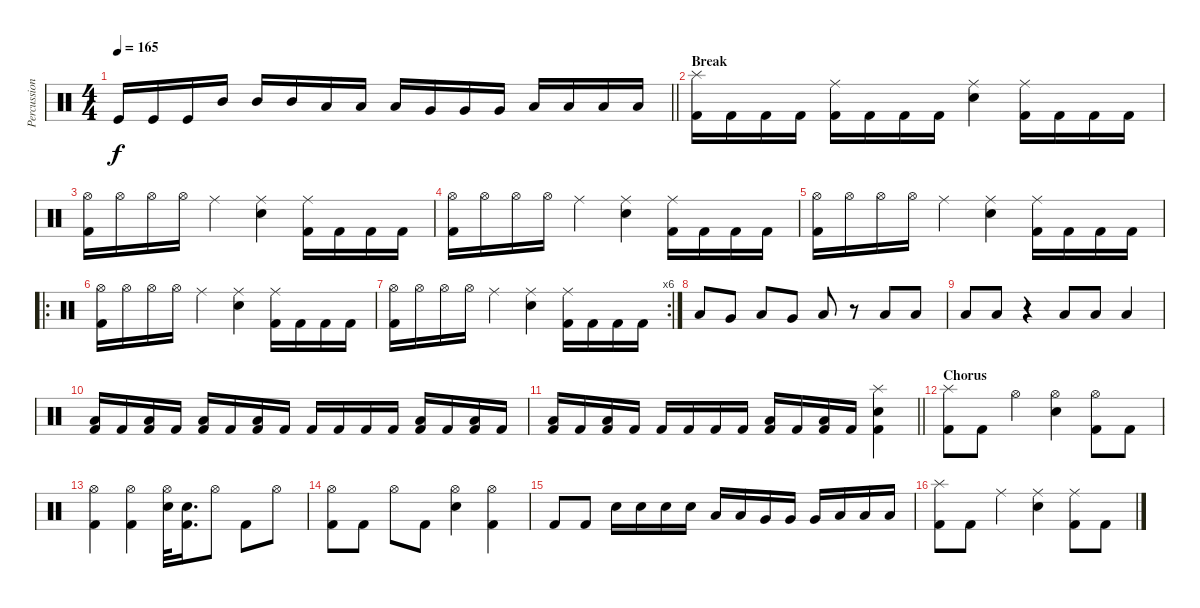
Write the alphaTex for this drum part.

\track ("Percussions" "Percussion") {instrument percussion}
\staff {score}
\articulation defaults
\ts (4 4)
\tempo 165
\clef neutral
\barLineRight lightlight
\ks c "Kick (hit)".16{dy f} "Kick (hit)".16 "Kick (hit)".16 "Mid Tom (hit)".16 "Mid Tom (hit)".16 "Mid Tom (hit)".16 "Low Tom (hit)".16 "Low Tom (hit)".16 "Low Tom (hit)".16 "Very Low Tom (hit)".16 "Very Low Tom (hit)".16 "Very Low Tom (hit)".16 "Low Floor Tom (hit)".16 "Low Floor Tom (hit)".16 "Low Floor Tom (hit)".16 "Low Floor Tom (hit)".16
|
\section ("" "Break")
("Splash (hit)" "Kick (hit) 2").16 "Kick (hit) 2".16 "Kick (hit) 2".16 "Kick (hit) 2".16 ("Ride (middle)" "Kick (hit) 2").16 "Kick (hit) 2".16 "Kick (hit) 2".16 "Kick (hit) 2".16 ("Ride (middle)" "Electric Snare (hit)").4 ("Ride (middle)" "Kick (hit) 2").16 "Kick (hit) 2".16 "Kick (hit) 2".16 "Kick (hit) 2".16 |
("Hi-Hat (open)" "Kick (hit) 2").16 "Hi-Hat (open)".16 "Hi-Hat (open)".16 "Hi-Hat (open)".16 "Ride (middle)".4 ("Ride (middle)" "Electric Snare (hit)").4 ("Ride (middle)" "Kick (hit) 2").16 "Kick (hit) 2".16 "Kick (hit) 2".16 "Kick (hit) 2".16 |
("Hi-Hat (open)" "Kick (hit) 2").16 "Hi-Hat (open)".16 "Hi-Hat (open)".16 "Hi-Hat (open)".16 "Ride (middle)".4 ("Ride (middle)" "Electric Snare (hit)").4 ("Ride (middle)" "Kick (hit) 2").16 "Kick (hit) 2".16 "Kick (hit) 2".16 "Kick (hit) 2".16 |
("Hi-Hat (open)" "Kick (hit) 2").16 "Hi-Hat (open)".16 "Hi-Hat (open)".16 "Hi-Hat (open)".16 "Ride (middle)".4 ("Ride (middle)" "Electric Snare (hit)").4 ("Ride (middle)" "Kick (hit) 2").16 "Kick (hit) 2".16 "Kick (hit) 2".16 "Kick (hit) 2".16 |
\ro
("Hi-Hat (open)" "Kick (hit) 2").16 "Hi-Hat (open)".16 "Hi-Hat (open)".16 "Hi-Hat (open)".16 "Ride (middle)".4 ("Ride (middle)" "Electric Snare (hit)").4 ("Ride (middle)" "Kick (hit) 2").16 "Kick (hit) 2".16 "Kick (hit) 2".16 "Kick (hit) 2".16 |
\rc 6
("Hi-Hat (open)" "Kick (hit) 2").16 "Hi-Hat (open)".16 "Hi-Hat (open)".16 "Hi-Hat (open)".16 "Ride (middle)".4 ("Ride (middle)" "Electric Snare (hit)").4 ("Ride (middle)" "Kick (hit) 2").16 "Kick (hit) 2".16 "Kick (hit) 2".16 "Kick (hit) 2".16 |
"Low Floor Tom (hit)".8 "Very Low Tom (hit)".8 "Low Floor Tom (hit)".8 "Very Low Tom (hit)".8 "Low Floor Tom (hit)".8 r.8 "Low Floor Tom (hit)".8 "Low Floor Tom (hit)".8 |
"Low Floor Tom (hit)".8 "Low Floor Tom (hit)".8 r.4 "Low Floor Tom (hit)".8 "Low Floor Tom (hit)".8 "Low Floor Tom (hit)".4 |
("Low Floor Tom (hit)" "Kick (hit) 2").16 "Kick (hit) 2".16 ("Low Floor Tom (hit)" "Kick (hit) 2").16 "Kick (hit) 2".16 ("Low Floor Tom (hit)" "Kick (hit) 2").16 "Kick (hit) 2".16 ("Low Floor Tom (hit)" "Kick (hit) 2").16 "Kick (hit) 2".16 "Kick (hit) 2".16 "Kick (hit) 2".16 "Kick (hit) 2".16 "Kick (hit) 2".16 ("Low Floor Tom (hit)" "Kick (hit) 2").16 "Kick (hit) 2".16 ("Low Floor Tom (hit)" "Kick (hit) 2").16 "Kick (hit) 2".16 |
\barLineRight lightlight
("Low Floor Tom (hit)" "Kick (hit) 2").16 "Kick (hit) 2".16 ("Low Floor Tom (hit)" "Kick (hit) 2").16 "Kick (hit) 2".16 "Kick (hit) 2".16 "Kick (hit) 2".16 "Kick (hit) 2".16 "Kick (hit) 2".16 ("Low Floor Tom (hit)" "Kick (hit) 2").16 "Kick (hit) 2".16 ("Low Floor Tom (hit)" "Kick (hit) 2").16 "Kick (hit) 2".16 ("Splash (hit)" "Electric Snare (hit)" "Kick (hit) 2").4 |
\section ("" "Chorus")
("Splash (hit)" "Kick (hit) 2").8 "Kick (hit) 2".8 "Hi-Hat (open)".4 ("Hi-Hat (open)" "Electric Snare (hit)").4 ("Hi-Hat (open)" "Kick (hit) 2").8 "Kick (hit) 2".8 |
("Hi-Hat (open)" "Kick (hit) 2").4 ("Hi-Hat (open)" "Kick (hit) 2").4 ("Hi-Hat (open)" "Electric Snare (hit)").32 ("Electric Snare (hit)" "Kick (hit) 2").16{d} "Hi-Hat (open)".8 "Kick (hit) 2".8 "Hi-Hat (open)".8 |
("Hi-Hat (open)" "Kick (hit) 2").8 "Kick (hit) 2".8 "Hi-Hat (open)".8 "Kick (hit) 2".8 ("Hi-Hat (open)" "Electric Snare (hit)").4 ("Hi-Hat (open)" "Kick (hit) 2").4 |
"Kick (hit) 2".8 "Kick (hit) 2".8 "Electric Snare (hit)".16 "Electric Snare (hit)".16 "Electric Snare (hit)".16 "Electric Snare (hit)".16 "Low Tom (hit)".16 "Low Tom (hit)".16 "Very Low Tom (hit)".16 "Very Low Tom (hit)".16 "Very Low Tom (hit)".16 "Low Floor Tom (hit)".16 "Low Floor Tom (hit)".16 "Low Floor Tom (hit)".16 |
("Splash (hit)" "Kick (hit) 2").8 "Kick (hit) 2".8 "Ride (middle)".4 ("Ride (middle)" "Electric Snare (hit)").4 ("Ride (middle)" "Kick (hit) 2").8 "Kick (hit) 2".8
